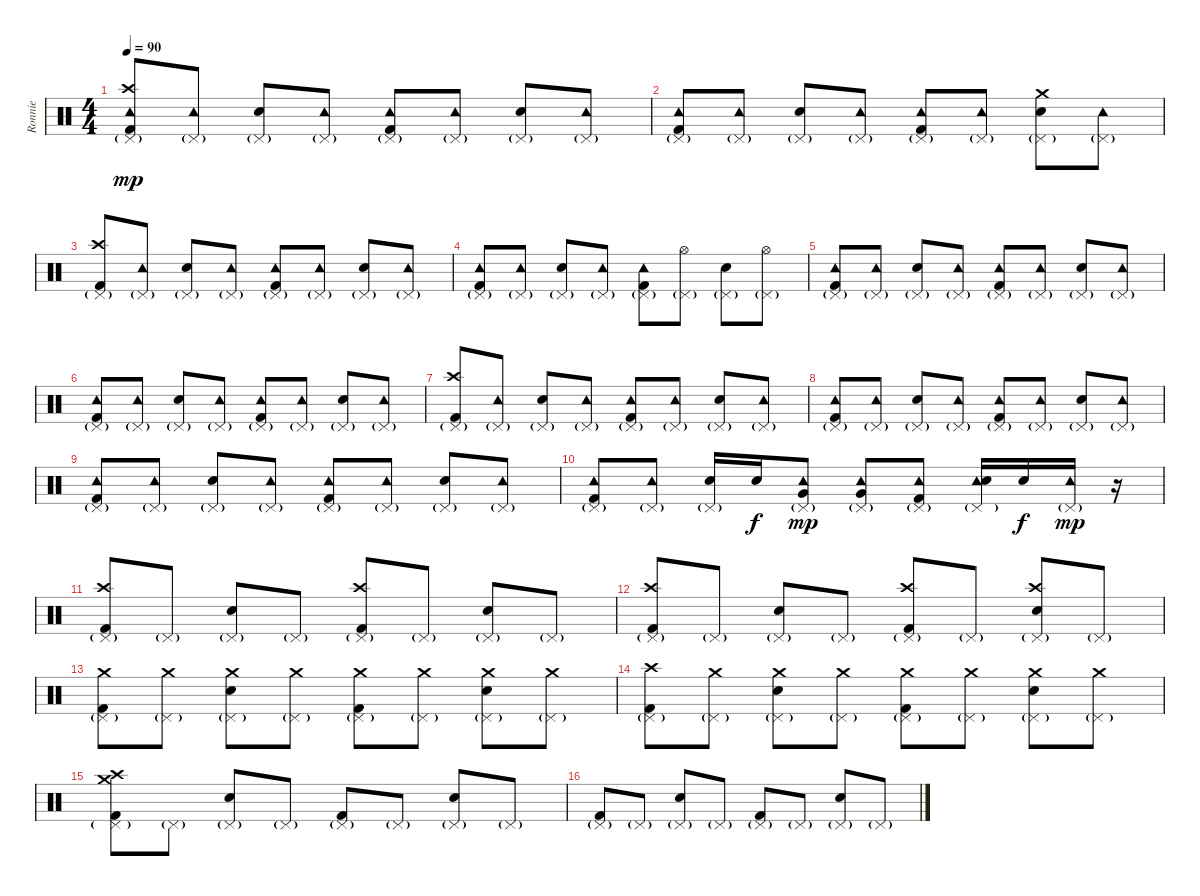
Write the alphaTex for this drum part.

\track ("Ronnie" "Ronnie") {instrument percussion}
\staff {score}
\articulation defaults
\ts (4 4)
\tempo 90
\clef neutral
\ks c
("Pedal Hi-Hat (hit)"{g} "Tambourine (hit)" "Crash high (hit)" "Kick (hit) 2").8{dy mp} ("Pedal Hi-Hat (hit)"{g} "Tambourine (hit)").8 ("Pedal Hi-Hat (hit)"{g} "Electric Snare (hit)").8 ("Pedal Hi-Hat (hit)"{g} "Tambourine (hit)").8 ("Pedal Hi-Hat (hit)"{g} "Tambourine (hit)" "Kick (hit) 2").8 ("Pedal Hi-Hat (hit)"{g} "Tambourine (hit)").8 ("Pedal Hi-Hat (hit)"{g} "Electric Snare (hit)").8 ("Pedal Hi-Hat (hit)"{g} "Tambourine (hit)").8 |
("Pedal Hi-Hat (hit)"{g} "Tambourine (hit)" "Kick (hit) 2").8 ("Pedal Hi-Hat (hit)"{g} "Tambourine (hit)").8 ("Pedal Hi-Hat (hit)"{g} "Electric Snare (hit)").8 ("Pedal Hi-Hat (hit)"{g} "Tambourine (hit)").8 ("Pedal Hi-Hat (hit)"{g} "Tambourine (hit)" "Kick (hit) 2").8 ("Pedal Hi-Hat (hit)"{g} "Tambourine (hit)").8 ("Pedal Hi-Hat (hit)"{g} "Electric Snare (hit)" "Crash medium (hit)").8 ("Pedal Hi-Hat (hit)"{g} "Tambourine (hit)").8 |
("Pedal Hi-Hat (hit)"{g} "Crash high (hit)" "Kick (hit) 2").8 ("Pedal Hi-Hat (hit)"{g} "Tambourine (hit)").8 ("Pedal Hi-Hat (hit)"{g} "Electric Snare (hit)").8 ("Pedal Hi-Hat (hit)"{g} "Tambourine (hit)").8 ("Pedal Hi-Hat (hit)"{g} "Tambourine (hit)" "Kick (hit) 2").8 ("Pedal Hi-Hat (hit)"{g} "Tambourine (hit)").8 ("Pedal Hi-Hat (hit)"{g} "Electric Snare (hit)").8 ("Pedal Hi-Hat (hit)"{g} "Tambourine (hit)").8 |
("Pedal Hi-Hat (hit)"{g} "Tambourine (hit)" "Kick (hit) 2").8 ("Pedal Hi-Hat (hit)"{g} "Tambourine (hit)").8 ("Pedal Hi-Hat (hit)"{g} "Electric Snare (hit)").8 ("Pedal Hi-Hat (hit)"{g} "Tambourine (hit)").8 ("Pedal Hi-Hat (hit)"{g} "Tambourine (hit)" "Kick (hit) 2").8 ("Pedal Hi-Hat (hit)"{g} "Hi-Hat (open)").8 ("Pedal Hi-Hat (hit)"{g} "Electric Snare (hit)").8 ("Pedal Hi-Hat (hit)"{g} "Hi-Hat (open)").8 |
("Pedal Hi-Hat (hit)"{g} "Tambourine (hit)" "Kick (hit) 2").8 ("Pedal Hi-Hat (hit)"{g} "Tambourine (hit)").8 ("Pedal Hi-Hat (hit)"{g} "Electric Snare (hit)").8 ("Pedal Hi-Hat (hit)"{g} "Tambourine (hit)").8 ("Pedal Hi-Hat (hit)"{g} "Tambourine (hit)" "Kick (hit) 2").8 ("Pedal Hi-Hat (hit)"{g} "Tambourine (hit)").8 ("Pedal Hi-Hat (hit)"{g} "Electric Snare (hit)").8 ("Pedal Hi-Hat (hit)"{g} "Tambourine (hit)").8 |
("Pedal Hi-Hat (hit)"{g} "Tambourine (hit)" "Kick (hit) 2").8 ("Pedal Hi-Hat (hit)"{g} "Tambourine (hit)").8 ("Pedal Hi-Hat (hit)"{g} "Electric Snare (hit)").8 ("Pedal Hi-Hat (hit)"{g} "Tambourine (hit)").8 ("Pedal Hi-Hat (hit)"{g} "Tambourine (hit)" "Kick (hit) 2").8 ("Pedal Hi-Hat (hit)"{g} "Tambourine (hit)").8 ("Pedal Hi-Hat (hit)"{g} "Electric Snare (hit)").8 ("Pedal Hi-Hat (hit)"{g} "Tambourine (hit)").8 |
("Pedal Hi-Hat (hit)"{g} "Crash high (hit)" "Kick (hit) 2").8 ("Pedal Hi-Hat (hit)"{g} "Tambourine (hit)").8 ("Pedal Hi-Hat (hit)"{g} "Electric Snare (hit)").8 ("Pedal Hi-Hat (hit)"{g} "Tambourine (hit)").8 ("Pedal Hi-Hat (hit)"{g} "Tambourine (hit)" "Kick (hit) 2").8 ("Pedal Hi-Hat (hit)"{g} "Tambourine (hit)").8 ("Pedal Hi-Hat (hit)"{g} "Electric Snare (hit)").8 ("Pedal Hi-Hat (hit)"{g} "Tambourine (hit)").8 |
("Pedal Hi-Hat (hit)"{g} "Tambourine (hit)" "Kick (hit) 2").8 ("Pedal Hi-Hat (hit)"{g} "Tambourine (hit)").8 ("Pedal Hi-Hat (hit)"{g} "Electric Snare (hit)").8 ("Pedal Hi-Hat (hit)"{g} "Tambourine (hit)").8 ("Pedal Hi-Hat (hit)"{g} "Tambourine (hit)" "Kick (hit) 2").8 ("Pedal Hi-Hat (hit)"{g} "Tambourine (hit)").8 ("Pedal Hi-Hat (hit)"{g} "Electric Snare (hit)").8 ("Pedal Hi-Hat (hit)"{g} "Tambourine (hit)").8 |
("Pedal Hi-Hat (hit)"{g} "Tambourine (hit)" "Kick (hit) 2").8 ("Pedal Hi-Hat (hit)"{g} "Tambourine (hit)").8 ("Pedal Hi-Hat (hit)"{g} "Electric Snare (hit)").8 ("Pedal Hi-Hat (hit)"{g} "Tambourine (hit)").8 ("Pedal Hi-Hat (hit)"{g} "Tambourine (hit)" "Kick (hit) 2").8 ("Pedal Hi-Hat (hit)"{g} "Tambourine (hit)").8 ("Pedal Hi-Hat (hit)"{g} "Electric Snare (hit)").8 ("Pedal Hi-Hat (hit)"{g} "Tambourine (hit)").8 |
("Pedal Hi-Hat (hit)"{g} "Tambourine (hit)" "Kick (hit) 2").8 ("Pedal Hi-Hat (hit)"{g} "Tambourine (hit)").8 ("Pedal Hi-Hat (hit)"{g} "Electric Snare (hit)").16 "Electric Snare (hit)".16{dy f} ("Pedal Hi-Hat (hit)"{g} "Tambourine (hit)" "Very Low Tom (hit)").8{dy mp} ("Pedal Hi-Hat (hit)"{g} "Tambourine (hit)" "Very Low Tom (hit)").8 ("Pedal Hi-Hat (hit)"{g} "Tambourine (hit)" "Kick (hit) 2").8 ("Pedal Hi-Hat (hit)"{g} "Tambourine (hit)" "Electric Snare (hit)").16 "Electric Snare (hit)".16{dy f} ("Pedal Hi-Hat (hit)"{g} "Tambourine (hit)").16{dy mp} r.16 |
("Pedal Hi-Hat (hit)"{g} "Crash high (hit)" "Kick (hit) 2").8 "Pedal Hi-Hat (hit)"{g}.8 ("Pedal Hi-Hat (hit)"{g} "Electric Snare (hit)").8 "Pedal Hi-Hat (hit)"{g}.8 ("Pedal Hi-Hat (hit)"{g} "Crash high (hit)" "Kick (hit) 2").8 "Pedal Hi-Hat (hit)"{g}.8 ("Pedal Hi-Hat (hit)"{g} "Electric Snare (hit)").8 "Pedal Hi-Hat (hit)"{g}.8 |
("Pedal Hi-Hat (hit)"{g} "Crash high (hit)" "Kick (hit) 2").8 "Pedal Hi-Hat (hit)"{g}.8 ("Pedal Hi-Hat (hit)"{g} "Electric Snare (hit)").8 "Pedal Hi-Hat (hit)"{g}.8 ("Pedal Hi-Hat (hit)"{g} "Crash high (hit)" "Kick (hit) 2").8 "Pedal Hi-Hat (hit)"{g}.8 ("Pedal Hi-Hat (hit)"{g} "Crash high (hit)" "Electric Snare (hit)").8 "Pedal Hi-Hat (hit)"{g}.8 |
("Pedal Hi-Hat (hit)"{g} "Crash medium (hit)" "Kick (hit) 2").8 ("Pedal Hi-Hat (hit)"{g} "Crash medium (hit)").8 ("Pedal Hi-Hat (hit)"{g} "Crash medium (hit)" "Electric Snare (hit)").8 ("Pedal Hi-Hat (hit)"{g} "Crash medium (hit)").8 ("Pedal Hi-Hat (hit)"{g} "Crash medium (hit)" "Kick (hit) 2").8 ("Pedal Hi-Hat (hit)"{g} "Crash medium (hit)").8 ("Pedal Hi-Hat (hit)"{g} "Crash medium (hit)" "Electric Snare (hit)").8 ("Pedal Hi-Hat (hit)"{g} "Crash medium (hit)").8 |
("Pedal Hi-Hat (hit)"{g} "Crash high (hit)" "Kick (hit) 2").8 ("Pedal Hi-Hat (hit)"{g} "Crash medium (hit)").8 ("Pedal Hi-Hat (hit)"{g} "Crash medium (hit)" "Electric Snare (hit)").8 ("Pedal Hi-Hat (hit)"{g} "Crash medium (hit)").8 ("Pedal Hi-Hat (hit)"{g} "Crash medium (hit)" "Kick (hit) 2").8 ("Pedal Hi-Hat (hit)"{g} "Crash medium (hit)").8 ("Pedal Hi-Hat (hit)"{g} "Crash medium (hit)" "Electric Snare (hit)").8 ("Pedal Hi-Hat (hit)"{g} "Crash medium (hit)").8 |
("Pedal Hi-Hat (hit)"{g} "Crash high (hit)" "Crash medium (hit)" "Kick (hit) 2").8 "Pedal Hi-Hat (hit)"{g}.8 ("Pedal Hi-Hat (hit)"{g} "Electric Snare (hit)").8 "Pedal Hi-Hat (hit)"{g}.8 ("Pedal Hi-Hat (hit)"{g} "Kick (hit) 2").8 "Pedal Hi-Hat (hit)"{g}.8 ("Pedal Hi-Hat (hit)"{g} "Electric Snare (hit)").8 "Pedal Hi-Hat (hit)"{g}.8 |
("Pedal Hi-Hat (hit)"{g} "Kick (hit) 2").8 "Pedal Hi-Hat (hit)"{g}.8 ("Pedal Hi-Hat (hit)"{g} "Electric Snare (hit)").8 "Pedal Hi-Hat (hit)"{g}.8 ("Pedal Hi-Hat (hit)"{g} "Kick (hit) 2").8 "Pedal Hi-Hat (hit)"{g}.8 ("Pedal Hi-Hat (hit)"{g} "Electric Snare (hit)").8 "Pedal Hi-Hat (hit)"{g}.8
